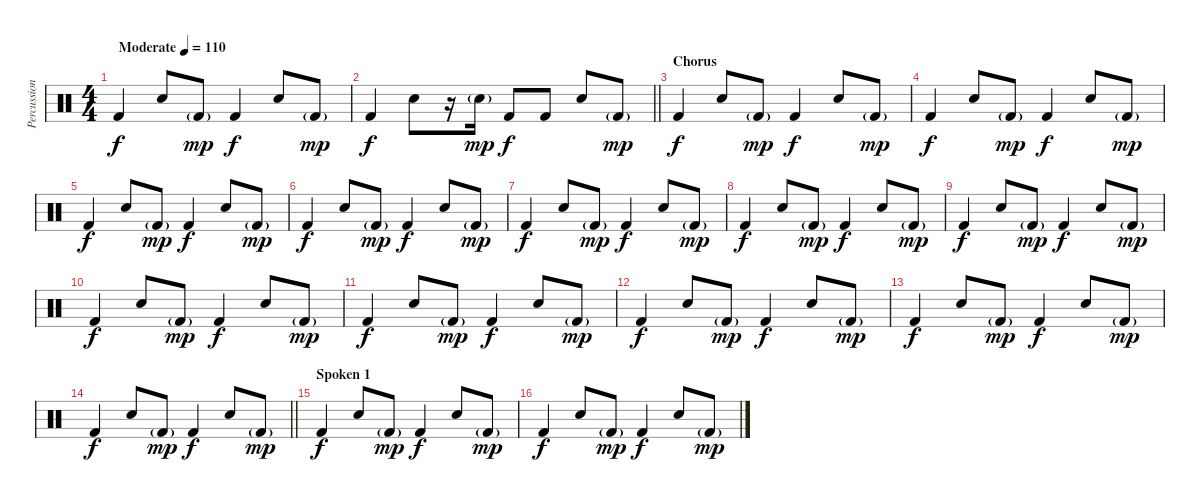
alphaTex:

\track ("Percussion" "Percussion") {instrument percussion}
\staff {score}
\articulation defaults
\ts (4 4)
\tempo (110 "Moderate")
\clef neutral
\ks c "Kick (hit) 2".4{dy f} "Snare (hit) 2".8 "Kick (hit) 2"{g}.8{dy mp} "Kick (hit) 2".4{dy f} "Snare (hit) 2".8 "Kick (hit) 2"{g}.8{dy mp}
|
\barLineRight lightlight "Kick (hit) 2".4{dy f} "Snare (hit) 2".8
r.16 "Snare (hit) 2"{g}.16{dy mp} "Kick (hit) 2".8{dy f} "Kick (hit) 2".8 "Snare (hit) 2".8 "Kick (hit) 2"{g}.8{dy mp} |
\section ("" "Chorus")
"Kick (hit) 2".4{dy f} "Snare (hit) 2".8 "Kick (hit) 2"{g}.8{dy mp} "Kick (hit) 2".4{dy f} "Snare (hit) 2".8 "Kick (hit) 2"{g}.8{dy mp} |
"Kick (hit) 2".4{dy f} "Snare (hit) 2".8 "Kick (hit) 2"{g}.8{dy mp} "Kick (hit) 2".4{dy f} "Snare (hit) 2".8 "Kick (hit) 2"{g}.8{dy mp} |
"Kick (hit) 2".4{dy f} "Snare (hit) 2".8 "Kick (hit) 2"{g}.8{dy mp} "Kick (hit) 2".4{dy f} "Snare (hit) 2".8 "Kick (hit) 2"{g}.8{dy mp} |
"Kick (hit) 2".4{dy f} "Snare (hit) 2".8 "Kick (hit) 2"{g}.8{dy mp} "Kick (hit) 2".4{dy f} "Snare (hit) 2".8 "Kick (hit) 2"{g}.8{dy mp} |
"Kick (hit) 2".4{dy f} "Snare (hit) 2".8 "Kick (hit) 2"{g}.8{dy mp} "Kick (hit) 2".4{dy f} "Snare (hit) 2".8 "Kick (hit) 2"{g}.8{dy mp} |
"Kick (hit) 2".4{dy f} "Snare (hit) 2".8 "Kick (hit) 2"{g}.8{dy mp} "Kick (hit) 2".4{dy f} "Snare (hit) 2".8 "Kick (hit) 2"{g}.8{dy mp} |
"Kick (hit) 2".4{dy f} "Snare (hit) 2".8 "Kick (hit) 2"{g}.8{dy mp} "Kick (hit) 2".4{dy f} "Snare (hit) 2".8 "Kick (hit) 2"{g}.8{dy mp} |
"Kick (hit) 2".4{dy f} "Snare (hit) 2".8 "Kick (hit) 2"{g}.8{dy mp} "Kick (hit) 2".4{dy f} "Snare (hit) 2".8 "Kick (hit) 2"{g}.8{dy mp} |
"Kick (hit) 2".4{dy f} "Snare (hit) 2".8 "Kick (hit) 2"{g}.8{dy mp} "Kick (hit) 2".4{dy f} "Snare (hit) 2".8 "Kick (hit) 2"{g}.8{dy mp} |
"Kick (hit) 2".4{dy f} "Snare (hit) 2".8 "Kick (hit) 2"{g}.8{dy mp} "Kick (hit) 2".4{dy f} "Snare (hit) 2".8 "Kick (hit) 2"{g}.8{dy mp} |
"Kick (hit) 2".4{dy f} "Snare (hit) 2".8 "Kick (hit) 2"{g}.8{dy mp} "Kick (hit) 2".4{dy f} "Snare (hit) 2".8 "Kick (hit) 2"{g}.8{dy mp} |
\barLineRight lightlight "Kick (hit) 2".4{dy f} "Snare (hit) 2".8 "Kick (hit) 2"{g}.8{dy mp} "Kick (hit) 2".4{dy f} "Snare (hit) 2".8 "Kick (hit) 2"{g}.8{dy mp}
|
\section ("" "Spoken 1")
"Kick (hit) 2".4{dy f} "Snare (hit) 2".8 "Kick (hit) 2"{g}.8{dy mp} "Kick (hit) 2".4{dy f} "Snare (hit) 2".8 "Kick (hit) 2"{g}.8{dy mp} |
"Kick (hit) 2".4{dy f} "Snare (hit) 2".8 "Kick (hit) 2"{g}.8{dy mp} "Kick (hit) 2".4{dy f} "Snare (hit) 2".8 "Kick (hit) 2"{g}.8{dy mp}
